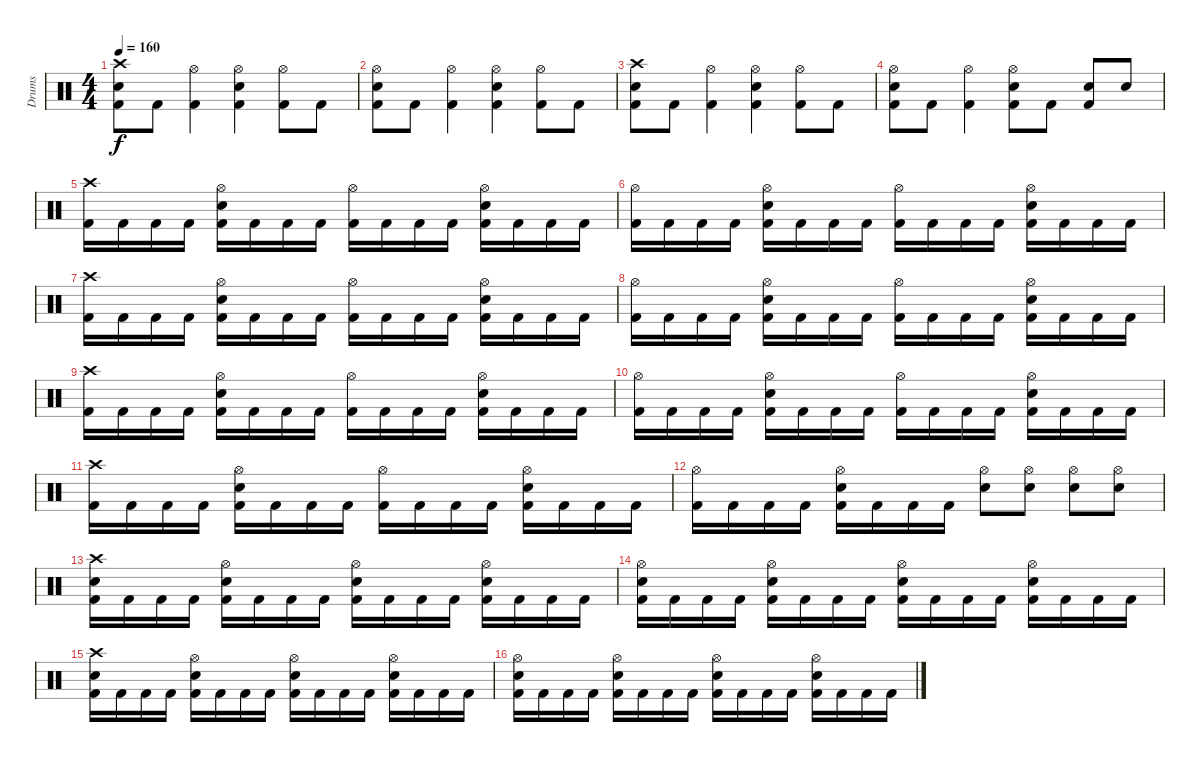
\track ("Drums" "Drums") {instrument percussion}
\staff {score}
\articulation defaults
\ts (4 4)
\tempo 160
\clef neutral
\ks c
("Crash high (hit)" "Snare (hit) 2" "Kick (hit) 2").8{dy f} "Kick (hit) 2".8 ("Hi-Hat (open)" "Kick (hit) 2").4 ("Hi-Hat (open)" "Snare (hit) 2" "Kick (hit) 2").4 ("Hi-Hat (open)" "Kick (hit) 2").8 "Kick (hit) 2".8 |
("Hi-Hat (open)" "Snare (hit) 2" "Kick (hit) 2").8 "Kick (hit) 2".8 ("Hi-Hat (open)" "Kick (hit) 2").4 ("Hi-Hat (open)" "Snare (hit) 2" "Kick (hit) 2").4 ("Hi-Hat (open)" "Kick (hit) 2").8 "Kick (hit) 2".8 |
("Crash high (hit)" "Snare (hit) 2" "Kick (hit) 2").8 "Kick (hit) 2".8 ("Hi-Hat (open)" "Kick (hit) 2").4 ("Hi-Hat (open)" "Snare (hit) 2" "Kick (hit) 2").4 ("Hi-Hat (open)" "Kick (hit) 2").8 "Kick (hit) 2".8 |
("Hi-Hat (open)" "Snare (hit) 2" "Kick (hit) 2").8 "Kick (hit) 2".8 ("Hi-Hat (open)" "Kick (hit) 2").4 ("Hi-Hat (open)" "Snare (hit) 2" "Kick (hit) 2").8 "Kick (hit) 2".8 ("Snare (hit) 2" "Kick (hit) 2").8 "Snare (hit) 2".8 |
("Crash high (hit)" "Kick (hit) 2").16 "Kick (hit) 2".16 "Kick (hit) 2".16 "Kick (hit) 2".16 ("Hi-Hat (open)" "Snare (hit) 2" "Kick (hit) 2").16 "Kick (hit) 2".16 "Kick (hit) 2".16 "Kick (hit) 2".16 ("Hi-Hat (open)" "Kick (hit) 2").16 "Kick (hit) 2".16 "Kick (hit) 2".16 "Kick (hit) 2".16 ("Hi-Hat (open)" "Snare (hit) 2" "Kick (hit) 2").16 "Kick (hit) 2".16 "Kick (hit) 2".16 "Kick (hit) 2".16 |
("Hi-Hat (open)" "Kick (hit) 2").16 "Kick (hit) 2".16 "Kick (hit) 2".16 "Kick (hit) 2".16 ("Hi-Hat (open)" "Snare (hit) 2" "Kick (hit) 2").16 "Kick (hit) 2".16 "Kick (hit) 2".16 "Kick (hit) 2".16 ("Hi-Hat (open)" "Kick (hit) 2").16 "Kick (hit) 2".16 "Kick (hit) 2".16 "Kick (hit) 2".16 ("Hi-Hat (open)" "Snare (hit) 2" "Kick (hit) 2").16 "Kick (hit) 2".16 "Kick (hit) 2".16 "Kick (hit) 2".16 |
("Crash high (hit)" "Kick (hit) 2").16 "Kick (hit) 2".16 "Kick (hit) 2".16 "Kick (hit) 2".16 ("Hi-Hat (open)" "Snare (hit) 2" "Kick (hit) 2").16 "Kick (hit) 2".16 "Kick (hit) 2".16 "Kick (hit) 2".16 ("Hi-Hat (open)" "Kick (hit) 2").16 "Kick (hit) 2".16 "Kick (hit) 2".16 "Kick (hit) 2".16 ("Hi-Hat (open)" "Snare (hit) 2" "Kick (hit) 2").16 "Kick (hit) 2".16 "Kick (hit) 2".16 "Kick (hit) 2".16 |
("Hi-Hat (open)" "Kick (hit) 2").16 "Kick (hit) 2".16 "Kick (hit) 2".16 "Kick (hit) 2".16 ("Hi-Hat (open)" "Snare (hit) 2" "Kick (hit) 2").16 "Kick (hit) 2".16 "Kick (hit) 2".16 "Kick (hit) 2".16 ("Hi-Hat (open)" "Kick (hit) 2").16 "Kick (hit) 2".16 "Kick (hit) 2".16 "Kick (hit) 2".16 ("Hi-Hat (open)" "Snare (hit) 2" "Kick (hit) 2").16 "Kick (hit) 2".16 "Kick (hit) 2".16 "Kick (hit) 2".16 |
("Crash high (hit)" "Kick (hit) 2").16 "Kick (hit) 2".16 "Kick (hit) 2".16 "Kick (hit) 2".16 ("Hi-Hat (open)" "Snare (hit) 2" "Kick (hit) 2").16 "Kick (hit) 2".16 "Kick (hit) 2".16 "Kick (hit) 2".16 ("Hi-Hat (open)" "Kick (hit) 2").16 "Kick (hit) 2".16 "Kick (hit) 2".16 "Kick (hit) 2".16 ("Hi-Hat (open)" "Snare (hit) 2" "Kick (hit) 2").16 "Kick (hit) 2".16 "Kick (hit) 2".16 "Kick (hit) 2".16 |
("Hi-Hat (open)" "Kick (hit) 2").16 "Kick (hit) 2".16 "Kick (hit) 2".16 "Kick (hit) 2".16 ("Hi-Hat (open)" "Snare (hit) 2" "Kick (hit) 2").16 "Kick (hit) 2".16 "Kick (hit) 2".16 "Kick (hit) 2".16 ("Hi-Hat (open)" "Kick (hit) 2").16 "Kick (hit) 2".16 "Kick (hit) 2".16 "Kick (hit) 2".16 ("Hi-Hat (open)" "Snare (hit) 2" "Kick (hit) 2").16 "Kick (hit) 2".16 "Kick (hit) 2".16 "Kick (hit) 2".16 |
("Crash high (hit)" "Kick (hit) 2").16 "Kick (hit) 2".16 "Kick (hit) 2".16 "Kick (hit) 2".16 ("Hi-Hat (open)" "Snare (hit) 2" "Kick (hit) 2").16 "Kick (hit) 2".16 "Kick (hit) 2".16 "Kick (hit) 2".16 ("Hi-Hat (open)" "Kick (hit) 2").16 "Kick (hit) 2".16 "Kick (hit) 2".16 "Kick (hit) 2".16 ("Hi-Hat (open)" "Snare (hit) 2" "Kick (hit) 2").16 "Kick (hit) 2".16 "Kick (hit) 2".16 "Kick (hit) 2".16 |
("Hi-Hat (open)" "Kick (hit) 2").16 "Kick (hit) 2".16 "Kick (hit) 2".16 "Kick (hit) 2".16 ("Hi-Hat (open)" "Snare (hit) 2" "Kick (hit) 2").16 "Kick (hit) 2".16 "Kick (hit) 2".16 "Kick (hit) 2".16 ("Hi-Hat (open)" "Snare (hit) 2").8 ("Hi-Hat (open)" "Snare (hit) 2").8 ("Hi-Hat (open)" "Snare (hit) 2").8 ("Hi-Hat (open)" "Snare (hit) 2").8 |
("Crash high (hit)" "Snare (hit) 2" "Kick (hit) 2").16 "Kick (hit) 2".16 "Kick (hit) 2".16 "Kick (hit) 2".16 ("Hi-Hat (open)" "Snare (hit) 2" "Kick (hit) 2").16 "Kick (hit) 2".16 "Kick (hit) 2".16 "Kick (hit) 2".16 ("Hi-Hat (open)" "Snare (hit) 2" "Kick (hit) 2").16 "Kick (hit) 2".16 "Kick (hit) 2".16 "Kick (hit) 2".16 ("Hi-Hat (open)" "Snare (hit) 2" "Kick (hit) 2").16 "Kick (hit) 2".16 "Kick (hit) 2".16 "Kick (hit) 2".16 |
("Hi-Hat (open)" "Snare (hit) 2" "Kick (hit) 2").16 "Kick (hit) 2".16 "Kick (hit) 2".16 "Kick (hit) 2".16 ("Hi-Hat (open)" "Snare (hit) 2" "Kick (hit) 2").16 "Kick (hit) 2".16 "Kick (hit) 2".16 "Kick (hit) 2".16 ("Hi-Hat (open)" "Snare (hit) 2" "Kick (hit) 2").16 "Kick (hit) 2".16 "Kick (hit) 2".16 "Kick (hit) 2".16 ("Hi-Hat (open)" "Snare (hit) 2" "Kick (hit) 2").16 "Kick (hit) 2".16 "Kick (hit) 2".16 "Kick (hit) 2".16 |
("Crash high (hit)" "Snare (hit) 2" "Kick (hit) 2").16 "Kick (hit) 2".16 "Kick (hit) 2".16 "Kick (hit) 2".16 ("Hi-Hat (open)" "Snare (hit) 2" "Kick (hit) 2").16 "Kick (hit) 2".16 "Kick (hit) 2".16 "Kick (hit) 2".16 ("Hi-Hat (open)" "Snare (hit) 2" "Kick (hit) 2").16 "Kick (hit) 2".16 "Kick (hit) 2".16 "Kick (hit) 2".16 ("Hi-Hat (open)" "Snare (hit) 2" "Kick (hit) 2").16 "Kick (hit) 2".16 "Kick (hit) 2".16 "Kick (hit) 2".16 |
("Hi-Hat (open)" "Snare (hit) 2" "Kick (hit) 2").16 "Kick (hit) 2".16 "Kick (hit) 2".16 "Kick (hit) 2".16 ("Hi-Hat (open)" "Snare (hit) 2" "Kick (hit) 2").16 "Kick (hit) 2".16 "Kick (hit) 2".16 "Kick (hit) 2".16 ("Hi-Hat (open)" "Snare (hit) 2" "Kick (hit) 2").16 "Kick (hit) 2".16 "Kick (hit) 2".16 "Kick (hit) 2".16 ("Hi-Hat (open)" "Snare (hit) 2" "Kick (hit) 2").16 "Kick (hit) 2".16 "Kick (hit) 2".16 "Kick (hit) 2".16
